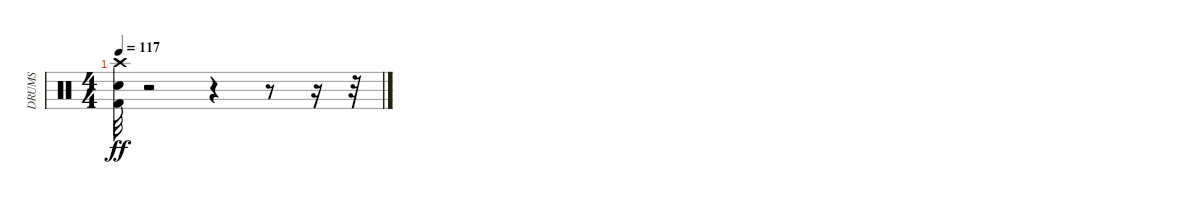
\track ("DRUMS" "DRUMS") {instrument percussion}
\staff {score}
\articulation defaults
\ts (4 4)
\tempo 117
\clef neutral
\ks c
("Kick (hit) 2" "Snare (hit) 2" "Crash high (hit)").32{dy ff} r.2 r.4 r.8 r.16 r.32
